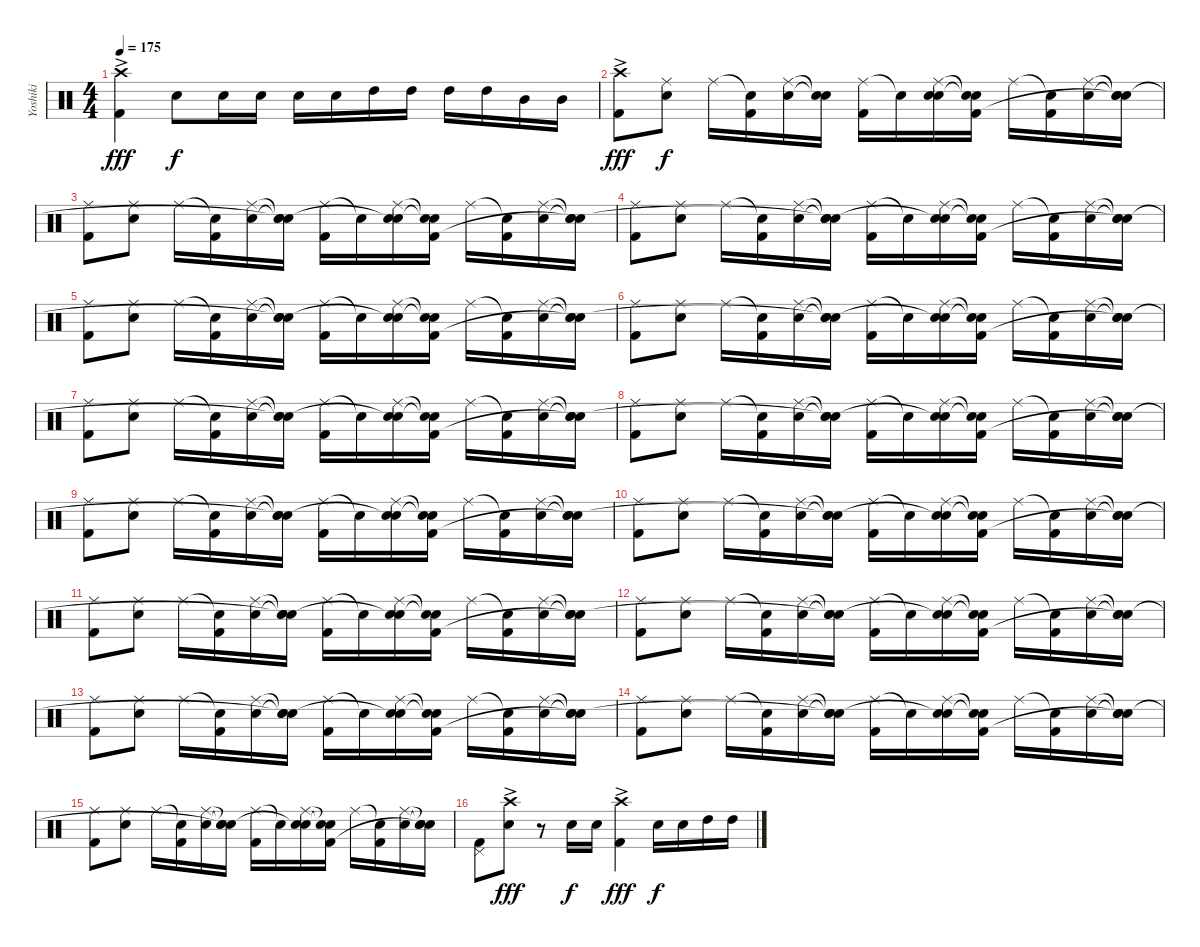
\track ("Yoshiki" "Yoshiki") {instrument percussion}
\staff {score}
\articulation defaults
\ts (4 4)
\tempo 175
\clef neutral
\ks c
("Crash high (hit)"{ac} "Kick (hit) 2").4{dy fff} "Snare (hit) 2".8{dy f} "Snare (hit) 2".16 "Snare (hit) 2".16 "Snare (hit) 2".16 "Snare (hit) 2".16 "High Tom (hit)".16 "High Tom (hit)".16 "High Tom (hit)".16 "High Tom (hit)".16 "Mid Tom (hit)".16 "Mid Tom (hit)".16 |
("Crash high (hit)"{ac} "Kick (hit) 2"{ac}).8{dy fff} ("Ride (middle)" "Snare (hit) 2").8{dy f} "Ride (middle)".16 ("Snare (hit)"{t} "Kick (hit) 2").16 ("Ride (middle)" "Snare (hit) 2").16 ("Snare (hit)"{t} "Snare (hit)"{t}).16 ("Ride (middle)" "Kick (hit) 2").16 "Snare (hit)"{t}.16 ("Ride (middle)" "Snare (hit) 2" "Snare (hit)").16 ("Snare (hit)"{t} "Snare (hit)"{t} "Kick (hit) 2").16 "Ride (middle)".16 ("Snare (hit)"{t} "Kick (hit) 2").16 ("Ride (middle)" "Snare (hit) 2").16 ("Snare (hit)"{t} "Snare (hit)"{t} "Snare (hit)"{t}).16 |
("Ride (middle)" "Kick (hit) 2").8 ("Ride (middle)" "Snare (hit) 2").8 "Ride (middle)".16 ("Snare (hit)"{t} "Kick (hit) 2").16 ("Ride (middle)" "Snare (hit) 2").16 ("Snare (hit)"{t} "Snare (hit)"{t} "Snare (hit)"{t}).16 ("Ride (middle)" "Kick (hit) 2").16 "Snare (hit)"{t}.16 ("Ride (middle)" "Snare (hit) 2" "Snare (hit)"{t}).16 ("Snare (hit)"{t} "Snare (hit)"{t} "Kick (hit) 2").16 "Ride (middle)".16 ("Snare (hit)"{t} "Kick (hit) 2").16 ("Ride (middle)" "Snare (hit) 2").16 ("Snare (hit)"{t} "Snare (hit)"{t} "Snare (hit)"{t}).16 |
("Ride (middle)" "Kick (hit) 2").8 ("Ride (middle)" "Snare (hit) 2").8 "Ride (middle)".16 ("Snare (hit)"{t} "Kick (hit) 2").16 ("Ride (middle)" "Snare (hit) 2").16 ("Snare (hit)"{t} "Snare (hit)"{t} "Snare (hit)"{t}).16 ("Ride (middle)" "Kick (hit) 2").16 "Snare (hit)"{t}.16 ("Ride (middle)" "Snare (hit) 2" "Snare (hit)"{t}).16 ("Snare (hit)"{t} "Snare (hit)"{t} "Kick (hit) 2").16 "Ride (middle)".16 ("Snare (hit)"{t} "Kick (hit) 2").16 ("Ride (middle)" "Snare (hit) 2").16 ("Snare (hit)"{t} "Snare (hit)"{t} "Snare (hit)"{t}).16 |
("Ride (middle)" "Kick (hit) 2").8 ("Ride (middle)" "Snare (hit) 2").8 "Ride (middle)".16 ("Snare (hit)"{t} "Kick (hit) 2").16 ("Ride (middle)" "Snare (hit) 2").16 ("Snare (hit)"{t} "Snare (hit)"{t} "Snare (hit)"{t}).16 ("Ride (middle)" "Kick (hit) 2").16 "Snare (hit)"{t}.16 ("Ride (middle)" "Snare (hit) 2" "Snare (hit)"{t}).16 ("Snare (hit)"{t} "Snare (hit)"{t} "Kick (hit) 2").16 "Ride (middle)".16 ("Snare (hit)"{t} "Kick (hit) 2").16 ("Ride (middle)" "Snare (hit) 2").16 ("Snare (hit)"{t} "Snare (hit)"{t} "Snare (hit)"{t}).16 |
("Ride (middle)" "Kick (hit) 2").8 ("Ride (middle)" "Snare (hit) 2").8 "Ride (middle)".16 ("Snare (hit)"{t} "Kick (hit) 2").16 ("Ride (middle)" "Snare (hit) 2").16 ("Snare (hit)"{t} "Snare (hit)"{t} "Snare (hit)"{t}).16 ("Ride (middle)" "Kick (hit) 2").16 "Snare (hit)"{t}.16 ("Ride (middle)" "Snare (hit) 2" "Snare (hit)"{t}).16 ("Snare (hit)"{t} "Snare (hit)"{t} "Kick (hit) 2").16 "Ride (middle)".16 ("Snare (hit)"{t} "Kick (hit) 2").16 ("Ride (middle)" "Snare (hit) 2").16 ("Snare (hit)"{t} "Snare (hit)"{t} "Snare (hit)"{t}).16 |
("Ride (middle)" "Kick (hit) 2").8 ("Ride (middle)" "Snare (hit) 2").8 "Ride (middle)".16 ("Snare (hit)"{t} "Kick (hit) 2").16 ("Ride (middle)" "Snare (hit) 2").16 ("Snare (hit)"{t} "Snare (hit)"{t} "Snare (hit)"{t}).16 ("Ride (middle)" "Kick (hit) 2").16 "Snare (hit)"{t}.16 ("Ride (middle)" "Snare (hit) 2" "Snare (hit)"{t}).16 ("Snare (hit)"{t} "Snare (hit)"{t} "Kick (hit) 2").16 "Ride (middle)".16 ("Snare (hit)"{t} "Kick (hit) 2").16 ("Ride (middle)" "Snare (hit) 2").16 ("Snare (hit)"{t} "Snare (hit)"{t} "Snare (hit)"{t}).16 |
("Ride (middle)" "Kick (hit) 2").8 ("Ride (middle)" "Snare (hit) 2").8 "Ride (middle)".16 ("Snare (hit)"{t} "Kick (hit) 2").16 ("Ride (middle)" "Snare (hit) 2").16 ("Snare (hit)"{t} "Snare (hit)"{t} "Snare (hit)"{t}).16 ("Ride (middle)" "Kick (hit) 2").16 "Snare (hit)"{t}.16 ("Ride (middle)" "Snare (hit) 2" "Snare (hit)"{t}).16 ("Snare (hit)"{t} "Snare (hit)"{t} "Kick (hit) 2").16 "Ride (middle)".16 ("Snare (hit)"{t} "Kick (hit) 2").16 ("Ride (middle)" "Snare (hit) 2").16 ("Snare (hit)"{t} "Snare (hit)"{t} "Snare (hit)"{t}).16 |
("Ride (middle)" "Kick (hit) 2").8 ("Ride (middle)" "Snare (hit) 2").8 "Ride (middle)".16 ("Snare (hit)"{t} "Kick (hit) 2").16 ("Ride (middle)" "Snare (hit) 2").16 ("Snare (hit)"{t} "Snare (hit)"{t} "Snare (hit)"{t}).16 ("Ride (middle)" "Kick (hit) 2").16 "Snare (hit)"{t}.16 ("Ride (middle)" "Snare (hit) 2" "Snare (hit)"{t}).16 ("Snare (hit)"{t} "Snare (hit)"{t} "Kick (hit) 2").16 "Ride (middle)".16 ("Snare (hit)"{t} "Kick (hit) 2").16 ("Ride (middle)" "Snare (hit) 2").16 ("Snare (hit)"{t} "Snare (hit)"{t} "Snare (hit)"{t}).16 |
("Ride (middle)" "Kick (hit) 2").8 ("Ride (middle)" "Snare (hit) 2").8 "Ride (middle)".16 ("Snare (hit)"{t} "Kick (hit) 2").16 ("Ride (middle)" "Snare (hit) 2").16 ("Snare (hit)"{t} "Snare (hit)"{t} "Snare (hit)"{t}).16 ("Ride (middle)" "Kick (hit) 2").16 "Snare (hit)"{t}.16 ("Ride (middle)" "Snare (hit) 2" "Snare (hit)"{t}).16 ("Snare (hit)"{t} "Snare (hit)"{t} "Kick (hit) 2").16 "Ride (middle)".16 ("Snare (hit)"{t} "Kick (hit) 2").16 ("Ride (middle)" "Snare (hit) 2").16 ("Snare (hit)"{t} "Snare (hit)"{t} "Snare (hit)"{t}).16 |
("Ride (middle)" "Kick (hit) 2").8 ("Ride (middle)" "Snare (hit) 2").8 "Ride (middle)".16 ("Snare (hit)"{t} "Kick (hit) 2").16 ("Ride (middle)" "Snare (hit) 2").16 ("Snare (hit)"{t} "Snare (hit)"{t} "Snare (hit)"{t}).16 ("Ride (middle)" "Kick (hit) 2").16 "Snare (hit)"{t}.16 ("Ride (middle)" "Snare (hit) 2" "Snare (hit)"{t}).16 ("Snare (hit)"{t} "Snare (hit)"{t} "Kick (hit) 2").16 "Ride (middle)".16 ("Snare (hit)"{t} "Kick (hit) 2").16 ("Ride (middle)" "Snare (hit) 2").16 ("Snare (hit)"{t} "Snare (hit)"{t} "Snare (hit)"{t}).16 |
("Ride (middle)" "Kick (hit) 2").8 ("Ride (middle)" "Snare (hit) 2").8 "Ride (middle)".16 ("Snare (hit)"{t} "Kick (hit) 2").16 ("Ride (middle)" "Snare (hit) 2").16 ("Snare (hit)"{t} "Snare (hit)"{t} "Snare (hit)"{t}).16 ("Ride (middle)" "Kick (hit) 2").16 "Snare (hit)"{t}.16 ("Ride (middle)" "Snare (hit) 2" "Snare (hit)"{t}).16 ("Snare (hit)"{t} "Snare (hit)"{t} "Kick (hit) 2").16 "Ride (middle)".16 ("Snare (hit)"{t} "Kick (hit) 2").16 ("Ride (middle)" "Snare (hit) 2").16 ("Snare (hit)"{t} "Snare (hit)"{t} "Snare (hit)"{t}).16 |
("Ride (middle)" "Kick (hit) 2").8 ("Ride (middle)" "Snare (hit) 2").8 "Ride (middle)".16 ("Snare (hit)"{t} "Kick (hit) 2").16 ("Ride (middle)" "Snare (hit) 2").16 ("Snare (hit)"{t} "Snare (hit)"{t} "Snare (hit)"{t}).16 ("Ride (middle)" "Kick (hit) 2").16 "Snare (hit)"{t}.16 ("Ride (middle)" "Snare (hit) 2" "Snare (hit)"{t}).16 ("Snare (hit)"{t} "Snare (hit)"{t} "Kick (hit) 2").16 "Ride (middle)".16 ("Snare (hit)"{t} "Kick (hit) 2").16 ("Ride (middle)" "Snare (hit) 2").16 ("Snare (hit)"{t} "Snare (hit)"{t} "Snare (hit)"{t}).16 |
("Ride (middle)" "Kick (hit) 2").8 ("Ride (middle)" "Snare (hit) 2").8 "Ride (middle)".16 ("Snare (hit)"{t} "Kick (hit) 2").16 ("Ride (middle)" "Snare (hit) 2").16 ("Snare (hit)"{t} "Snare (hit)"{t} "Snare (hit)"{t}).16 ("Ride (middle)" "Kick (hit) 2").16 "Snare (hit)"{t}.16 ("Ride (middle)" "Snare (hit) 2" "Snare (hit)"{t}).16 ("Snare (hit)"{t} "Snare (hit)"{t} "Kick (hit) 2").16 "Ride (middle)".16 ("Snare (hit)"{t} "Kick (hit) 2").16 ("Ride (middle)" "Snare (hit) 2").16 ("Snare (hit)"{t} "Snare (hit)"{t} "Snare (hit)"{t}).16 |
("Ride (middle)" "Kick (hit) 2").8 ("Ride (middle)" "Snare (hit) 2").8 "Ride (middle)".16 ("Snare (hit)"{t} "Kick (hit) 2").16 ("Ride (middle)" "Snare (hit) 2").16 ("Snare (hit)"{t} "Snare (hit)"{t} "Snare (hit)"{t}).16 ("Ride (middle)" "Kick (hit) 2").16 "Snare (hit)"{t}.16 ("Ride (middle)" "Snare (hit) 2" "Snare (hit)"{t}).16 ("Snare (hit)"{t} "Snare (hit)"{t} "Kick (hit) 2").16 "Ride (middle)".16 ("Snare (hit)"{t} "Kick (hit) 2").16 ("Ride (middle)" "Snare (hit) 2").16 ("Snare (hit)"{t} "Snare (hit)"{t} "Snare (hit)"{t}).16 |
("Pedal Hi-Hat (hit)" "Kick (hit) 2").8 ("Crash high (hit)" "Snare (hit) 2"{ac}).8{dy fff} r.8 "Snare (hit) 2".16{dy f} "Snare (hit) 2".16 ("Crash high (hit)"{ac} "Kick (hit) 2"{ac}).4{dy fff} "Snare (hit) 2".16{dy f} "Snare (hit) 2".16 "High Tom (hit)".16 "High Tom (hit)".16
